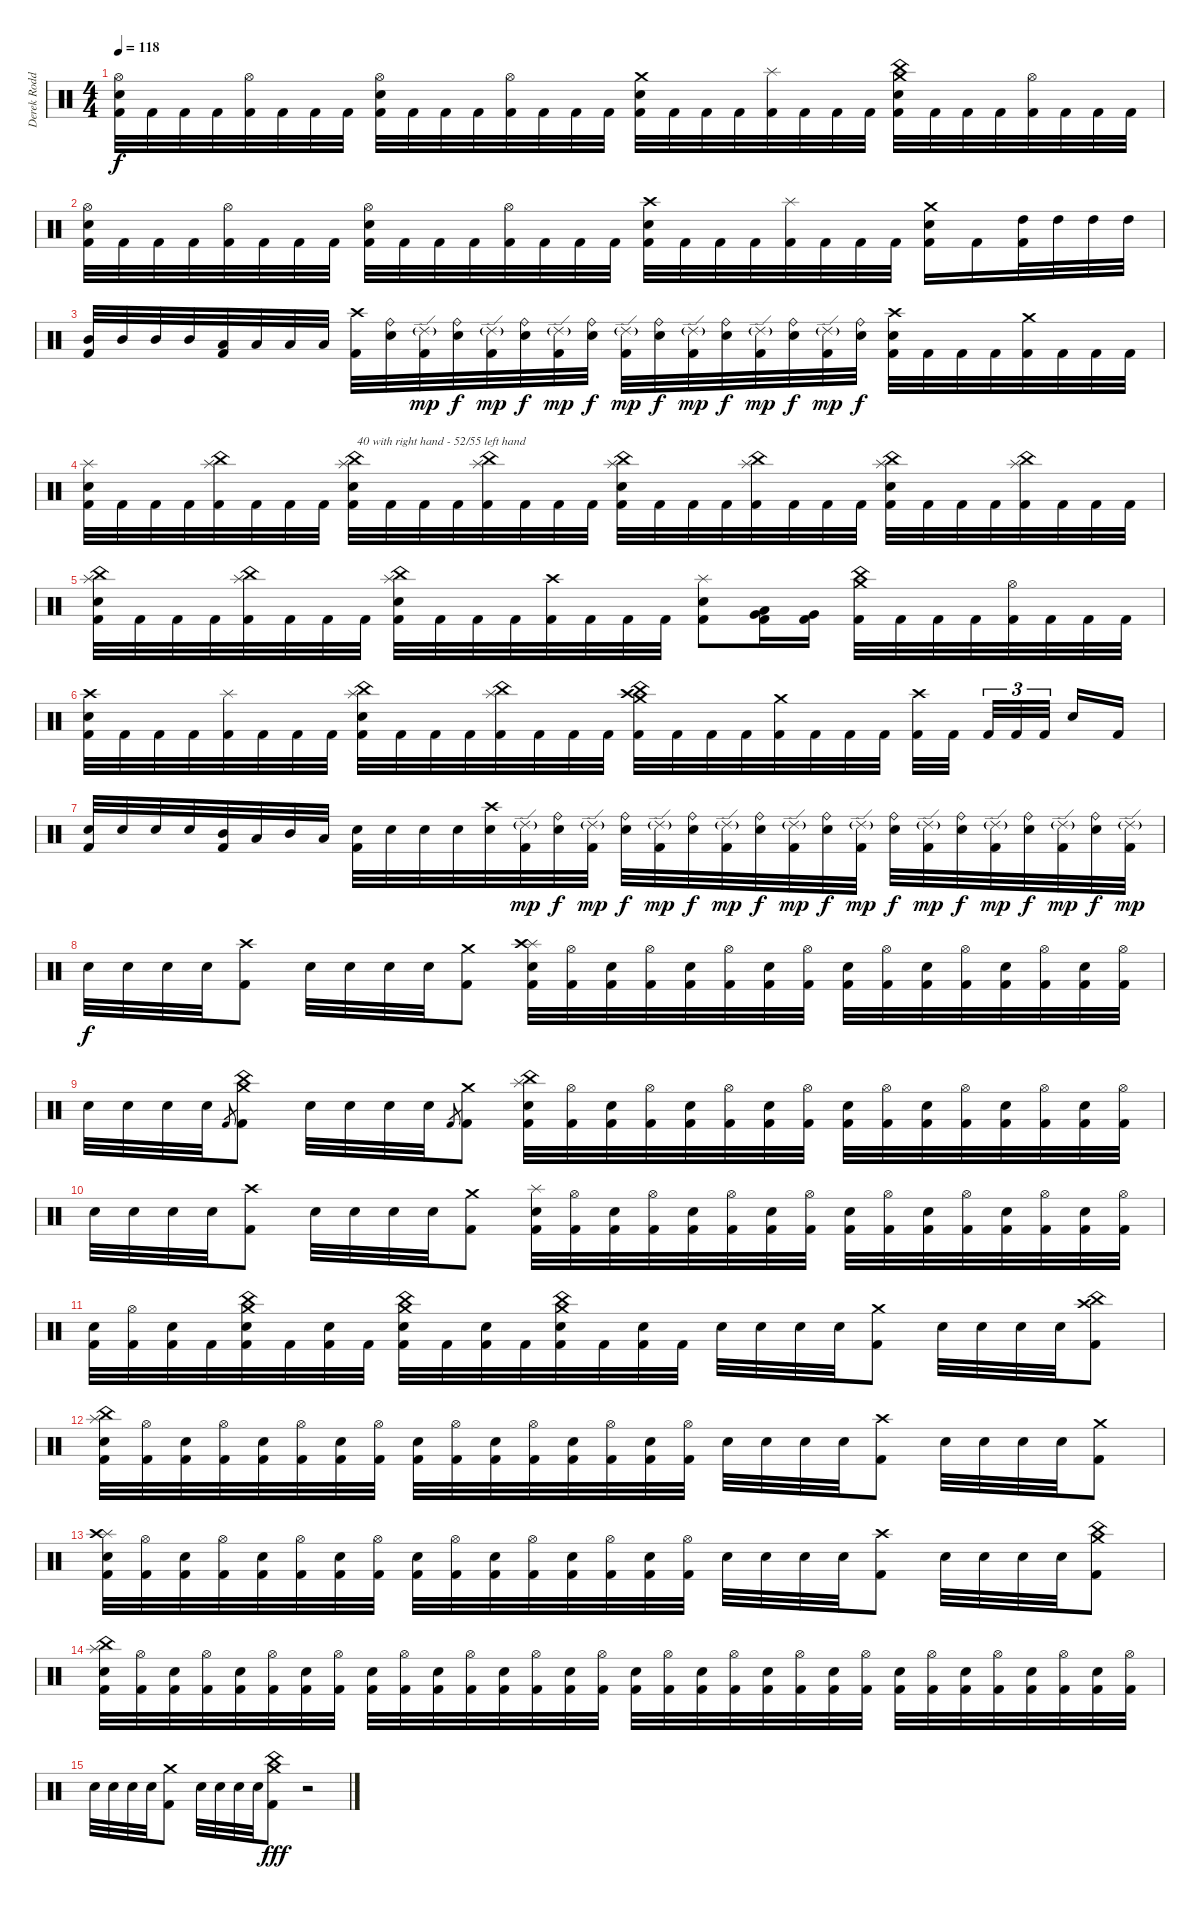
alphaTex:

\track ("Derek Roddy" "Derek Rodd") {instrument percussion}
\staff {score}
\articulation defaults
\ts (4 4)
\tempo 118
\clef neutral
\ks c
("Hi-Hat (open)" "Electric Snare (hit)" "Kick (hit) 2").32{dy f} "Kick (hit) 2".32 "Kick (hit) 2".32 "Kick (hit) 2".32 ("Hi-Hat (open)" "Kick (hit) 2").32 "Kick (hit) 2".32 "Kick (hit) 2".32 "Kick (hit) 2".32 ("Hi-Hat (open)" "Electric Snare (hit)" "Kick (hit) 2").32 "Kick (hit) 2".32 "Kick (hit) 2".32 "Kick (hit) 2".32 ("Hi-Hat (open)" "Kick (hit) 2").32 "Kick (hit) 2".32 "Kick (hit) 2".32 "Kick (hit) 2".32 ("Crash medium (hit)" "Electric Snare (hit)" "Kick (hit) 2").32 "Kick (hit) 2".32 "Kick (hit) 2".32 "Kick (hit) 2".32 ("Splash (hit)" "Kick (hit) 2").32 "Kick (hit) 2".32 "Kick (hit) 2".32 "Kick (hit) 2".32 ("Crash medium (hit)" "China (hit)" "Electric Snare (hit)" "Kick (hit) 2").32 "Kick (hit) 2".32 "Kick (hit) 2".32 "Kick (hit) 2".32 ("Hi-Hat (open)" "Kick (hit) 2").32 "Kick (hit) 2".32 "Kick (hit) 2".32 "Kick (hit) 2".32 |
("Hi-Hat (open)" "Electric Snare (hit)" "Kick (hit) 2").32 "Kick (hit) 2".32 "Kick (hit) 2".32 "Kick (hit) 2".32 ("Hi-Hat (open)" "Kick (hit) 2").32 "Kick (hit) 2".32 "Kick (hit) 2".32 "Kick (hit) 2".32 ("Hi-Hat (open)" "Electric Snare (hit)" "Kick (hit) 2").32 "Kick (hit) 2".32 "Kick (hit) 2".32 "Kick (hit) 2".32 ("Hi-Hat (open)" "Kick (hit) 2").32 "Kick (hit) 2".32 "Kick (hit) 2".32 "Kick (hit) 2".32 ("Crash high (hit)" "Electric Snare (hit)" "Kick (hit) 2").32 "Kick (hit) 2".32 "Kick (hit) 2".32 "Kick (hit) 2".32 ("Splash (hit)" "Kick (hit) 2").32 "Kick (hit) 2".32 "Kick (hit) 2".32 "Kick (hit) 2".32 ("Crash medium (hit)" "Electric Snare (hit)" "Kick (hit) 2").16 "Kick (hit) 2".16 ("High Tom (hit)" "Kick (hit) 2").32 "High Tom (hit)".32 "High Tom (hit)".32 "High Tom (hit)".32 |
("Mid Tom (hit)" "Kick (hit) 2").32 "Mid Tom (hit)".32 "Mid Tom (hit)".32 "Mid Tom (hit)".32 ("Low Tom (hit)" "Kick (hit) 2").32 "Low Tom (hit)".32 "Low Tom (hit)".32 "Low Tom (hit)".32 ("Crash high (hit)" "Kick (hit) 2").32 ("Ride (bell)" "Electric Snare (hit)").32 ("Ride (edge) 2"{g} "Kick (hit) 2").32{dy mp} ("Ride (bell)" "Electric Snare (hit)").32{dy f} ("Ride (edge) 2"{g} "Kick (hit) 2").32{dy mp} ("Ride (bell)" "Electric Snare (hit)").32{dy f} ("Ride (edge) 2"{g} "Kick (hit) 2").32{dy mp} ("Ride (bell)" "Electric Snare (hit)").32{dy f} ("Ride (edge) 2"{g} "Kick (hit) 2").32{dy mp} ("Ride (bell)" "Electric Snare (hit)").32{dy f} ("Ride (edge) 2"{g} "Kick (hit) 2").32{dy mp} ("Ride (bell)" "Electric Snare (hit)").32{dy f} ("Ride (edge) 2"{g} "Kick (hit) 2").32{dy mp} ("Ride (bell)" "Electric Snare (hit)").32{dy f} ("Ride (edge) 2"{g} "Kick (hit) 2").32{dy mp} ("Ride (bell)" "Electric Snare (hit)").32{dy f} ("Crash high (hit)" "Electric Snare (hit)" "Kick (hit) 2").32 "Kick (hit) 2".32 "Kick (hit) 2".32 "Kick (hit) 2".32 ("Crash medium (hit)" "Kick (hit) 2").32 "Kick (hit) 2".32 "Kick (hit) 2".32 "Kick (hit) 2".32 |
("Splash (hit)" "Electric Snare (hit)" "Kick (hit) 2").32 "Kick (hit) 2".32 "Kick (hit) 2".32 "Kick (hit) 2".32 ("Splash (hit)" "China (hit)" "Kick (hit) 2").32 "Kick (hit) 2".32 "Kick (hit) 2".32 "Kick (hit) 2".32 ("Splash (hit)" "China (hit)" "Electric Snare (hit)" "Kick (hit) 2").32{txt "40 with right hand - 52/55 left hand"} "Kick (hit) 2".32 "Kick (hit) 2".32 "Kick (hit) 2".32 ("Splash (hit)" "China (hit)" "Kick (hit) 2").32 "Kick (hit) 2".32 "Kick (hit) 2".32 "Kick (hit) 2".32 ("Splash (hit)" "China (hit)" "Electric Snare (hit)" "Kick (hit) 2").32 "Kick (hit) 2".32 "Kick (hit) 2".32 "Kick (hit) 2".32 ("Splash (hit)" "China (hit)" "Kick (hit) 2").32 "Kick (hit) 2".32 "Kick (hit) 2".32 "Kick (hit) 2".32 ("Splash (hit)" "China (hit)" "Electric Snare (hit)" "Kick (hit) 2").32 "Kick (hit) 2".32 "Kick (hit) 2".32 "Kick (hit) 2".32 ("Splash (hit)" "China (hit)" "Kick (hit) 2").32 "Kick (hit) 2".32 "Kick (hit) 2".32 "Kick (hit) 2".32 |
("Splash (hit)" "China (hit)" "Electric Snare (hit)" "Kick (hit) 2").32 "Kick (hit) 2".32 "Kick (hit) 2".32 "Kick (hit) 2".32 ("Splash (hit)" "China (hit)" "Kick (hit) 2").32 "Kick (hit) 2".32 "Kick (hit) 2".32 "Kick (hit) 2".32 ("Splash (hit)" "China (hit)" "Electric Snare (hit)" "Kick (hit) 2").32 "Kick (hit) 2".32 "Kick (hit) 2".32 "Kick (hit) 2".32 ("Crash high (hit)" "Kick (hit) 2").32 "Kick (hit) 2".32 "Kick (hit) 2".32 "Kick (hit) 2".32 ("Splash (hit)" "Electric Snare (hit)" "Kick (hit) 2").8 ("Low Tom (hit)" "Very Low Tom (hit)" "Kick (hit) 2").16 ("Very Low Tom (hit)" "Kick (hit) 2").16 ("Crash medium (hit)" "China (hit)" "Kick (hit) 2").32 "Kick (hit) 2".32 "Kick (hit) 2".32 "Kick (hit) 2".32 ("Hi-Hat (open)" "Kick (hit) 2").32 "Kick (hit) 2".32 "Kick (hit) 2".32 "Kick (hit) 2".32 |
("Crash high (hit)" "Electric Snare (hit)" "Kick (hit) 2").32 "Kick (hit) 2".32 "Kick (hit) 2".32 "Kick (hit) 2".32 ("Splash (hit)" "Kick (hit) 2").32 "Kick (hit) 2".32 "Kick (hit) 2".32 "Kick (hit) 2".32 ("Splash (hit)" "China (hit)" "Electric Snare (hit)" "Kick (hit) 2").32 "Kick (hit) 2".32 "Kick (hit) 2".32 "Kick (hit) 2".32 ("Splash (hit)" "China (hit)" "Kick (hit) 2").32 "Kick (hit) 2".32 "Kick (hit) 2".32 "Kick (hit) 2".32 ("Crash medium (hit)" "China (hit)" "Crash high (hit)" "Kick (hit) 2").32 "Kick (hit) 2".32 "Kick (hit) 2".32 "Kick (hit) 2".32 ("Crash medium (hit)" "Kick (hit) 2").32 "Kick (hit) 2".32 "Kick (hit) 2".32 "Kick (hit) 2".32 ("Crash high (hit)" "Kick (hit) 2").32 "Kick (hit) 2".32 "Kick (hit) 2".32{tu (3 2)} "Kick (hit) 2".32{tu (3 2)} "Kick (hit) 2".32{tu (3 2)} "Electric Snare (hit)".16 "Kick (hit) 2".16 |
("Electric Snare (hit)" "Kick (hit) 2").32 "Electric Snare (hit)".32 "Electric Snare (hit)".32 "Electric Snare (hit)".32 ("Mid Tom (hit)" "Kick (hit) 2").32 "Low Tom (hit)".32 "Mid Tom (hit)".32 "Low Tom (hit)".32 ("Electric Snare (hit)" "Kick (hit) 2").32 "Electric Snare (hit)".32 "Electric Snare (hit)".32 "Electric Snare (hit)".32 ("Crash high (hit)" "Electric Snare (hit)").32 ("Ride (edge) 2"{g} "Kick (hit) 2").32{dy mp} ("Ride (bell)" "Electric Snare (hit)").32{dy f} ("Ride (edge) 2"{g} "Kick (hit) 2").32{dy mp} ("Ride (bell)" "Electric Snare (hit)").32{dy f} ("Ride (edge) 2"{g} "Kick (hit) 2").32{dy mp} ("Ride (bell)" "Electric Snare (hit)").32{dy f} ("Ride (edge) 2"{g} "Kick (hit) 2").32{dy mp} ("Ride (bell)" "Electric Snare (hit)").32{dy f} ("Ride (edge) 2"{g} "Kick (hit) 2").32{dy mp} ("Ride (bell)" "Electric Snare (hit)").32{dy f} ("Ride (edge) 2"{g} "Kick (hit) 2").32{dy mp} ("Ride (bell)" "Electric Snare (hit)").32{dy f} ("Ride (edge) 2"{g} "Kick (hit) 2").32{dy mp} ("Ride (bell)" "Electric Snare (hit)").32{dy f} ("Ride (edge) 2"{g} "Kick (hit) 2").32{dy mp} ("Ride (bell)" "Electric Snare (hit)").32{dy f} ("Ride (edge) 2"{g} "Kick (hit) 2").32{dy mp} ("Ride (bell)" "Electric Snare (hit)").32{dy f} ("Ride (edge) 2"{g} "Kick (hit) 2").32{dy mp} |
"Electric Snare (hit)".32{dy f} "Electric Snare (hit)".32 "Electric Snare (hit)".32 "Electric Snare (hit)".32 ("Crash high (hit)" "Kick (hit) 2").8 "Electric Snare (hit)".32 "Electric Snare (hit)".32 "Electric Snare (hit)".32 "Electric Snare (hit)".32 ("Crash medium (hit)" "Kick (hit) 2").8 ("Splash (hit)" "Crash high (hit)" "Electric Snare (hit)" "Kick (hit) 2").32 ("Hi-Hat (open)" "Kick (hit) 2").32 ("Electric Snare (hit)" "Kick (hit) 2").32 ("Hi-Hat (open)" "Kick (hit) 2").32 ("Electric Snare (hit)" "Kick (hit) 2").32 ("Hi-Hat (open)" "Kick (hit) 2").32 ("Electric Snare (hit)" "Kick (hit) 2").32 ("Hi-Hat (open)" "Kick (hit) 2").32 ("Electric Snare (hit)" "Kick (hit) 2").32 ("Hi-Hat (open)" "Kick (hit) 2").32 ("Electric Snare (hit)" "Kick (hit) 2").32 ("Hi-Hat (open)" "Kick (hit) 2").32 ("Electric Snare (hit)" "Kick (hit) 2").32 ("Hi-Hat (open)" "Kick (hit) 2").32 ("Electric Snare (hit)" "Kick (hit) 2").32 ("Hi-Hat (open)" "Kick (hit) 2").32 |
"Electric Snare (hit)".32 "Electric Snare (hit)".32 "Electric Snare (hit)".32 "Electric Snare (hit)".32 "Kick (hit) 2".8{gr} ("Crash medium (hit)" "China (hit)" "Kick (hit) 2").8 "Electric Snare (hit)".32 "Electric Snare (hit)".32 "Electric Snare (hit)".32 "Electric Snare (hit)".32 "Kick (hit) 2".8{gr} ("Crash medium (hit)" "Kick (hit) 2").8 ("Splash (hit)" "China (hit)" "Electric Snare (hit)" "Kick (hit) 2").32 ("Hi-Hat (open)" "Kick (hit) 2").32 ("Electric Snare (hit)" "Kick (hit) 2").32 ("Hi-Hat (open)" "Kick (hit) 2").32 ("Electric Snare (hit)" "Kick (hit) 2").32 ("Hi-Hat (open)" "Kick (hit) 2").32 ("Electric Snare (hit)" "Kick (hit) 2").32 ("Hi-Hat (open)" "Kick (hit) 2").32 ("Electric Snare (hit)" "Kick (hit) 2").32 ("Hi-Hat (open)" "Kick (hit) 2").32 ("Electric Snare (hit)" "Kick (hit) 2").32 ("Hi-Hat (open)" "Kick (hit) 2").32 ("Electric Snare (hit)" "Kick (hit) 2").32 ("Hi-Hat (open)" "Kick (hit) 2").32 ("Electric Snare (hit)" "Kick (hit) 2").32 ("Hi-Hat (open)" "Kick (hit) 2").32 |
"Electric Snare (hit)".32 "Electric Snare (hit)".32 "Electric Snare (hit)".32 "Electric Snare (hit)".32 ("Crash high (hit)" "Kick (hit) 2").8 "Electric Snare (hit)".32 "Electric Snare (hit)".32 "Electric Snare (hit)".32 "Electric Snare (hit)".32 ("Crash medium (hit)" "Kick (hit) 2").8 ("Splash (hit)" "Electric Snare (hit)" "Kick (hit) 2").32 ("Hi-Hat (open)" "Kick (hit) 2").32 ("Electric Snare (hit)" "Kick (hit) 2").32 ("Hi-Hat (open)" "Kick (hit) 2").32 ("Electric Snare (hit)" "Kick (hit) 2").32 ("Hi-Hat (open)" "Kick (hit) 2").32 ("Electric Snare (hit)" "Kick (hit) 2").32 ("Hi-Hat (open)" "Kick (hit) 2").32 ("Electric Snare (hit)" "Kick (hit) 2").32 ("Hi-Hat (open)" "Kick (hit) 2").32 ("Electric Snare (hit)" "Kick (hit) 2").32 ("Hi-Hat (open)" "Kick (hit) 2").32 ("Electric Snare (hit)" "Kick (hit) 2").32 ("Hi-Hat (open)" "Kick (hit) 2").32 ("Electric Snare (hit)" "Kick (hit) 2").32 ("Hi-Hat (open)" "Kick (hit) 2").32 |
("Electric Snare (hit)" "Kick (hit) 2").32 ("Hi-Hat (open)" "Kick (hit) 2").32 ("Electric Snare (hit)" "Kick (hit) 2").32 "Kick (hit) 2".32 ("Crash medium (hit)" "China (hit)" "Electric Snare (hit)" "Kick (hit) 2").32 "Kick (hit) 2".32 ("Electric Snare (hit)" "Kick (hit) 2").32 "Kick (hit) 2".32 ("Crash medium (hit)" "China (hit)" "Electric Snare (hit)" "Kick (hit) 2").32 "Kick (hit) 2".32 ("Electric Snare (hit)" "Kick (hit) 2").32 "Kick (hit) 2".32 ("Crash medium (hit)" "China (hit)" "Electric Snare (hit)" "Kick (hit) 2").32 "Kick (hit) 2".32 ("Electric Snare (hit)" "Kick (hit) 2").32 "Kick (hit) 2".32 "Electric Snare (hit)".32 "Electric Snare (hit)".32 "Electric Snare (hit)".32 "Electric Snare (hit)".32 ("Crash medium (hit)" "Kick (hit) 2").8 "Electric Snare (hit)".32 "Electric Snare (hit)".32 "Electric Snare (hit)".32 "Electric Snare (hit)".32 ("Crash high (hit)" "China (hit)" "Kick (hit) 2").8 |
("Splash (hit)" "China (hit)" "Electric Snare (hit)" "Kick (hit) 2").32 ("Hi-Hat (open)" "Kick (hit) 2").32 ("Electric Snare (hit)" "Kick (hit) 2").32 ("Hi-Hat (open)" "Kick (hit) 2").32 ("Electric Snare (hit)" "Kick (hit) 2").32 ("Hi-Hat (open)" "Kick (hit) 2").32 ("Electric Snare (hit)" "Kick (hit) 2").32 ("Hi-Hat (open)" "Kick (hit) 2").32 ("Electric Snare (hit)" "Kick (hit) 2").32 ("Hi-Hat (open)" "Kick (hit) 2").32 ("Electric Snare (hit)" "Kick (hit) 2").32 ("Hi-Hat (open)" "Kick (hit) 2").32 ("Electric Snare (hit)" "Kick (hit) 2").32 ("Hi-Hat (open)" "Kick (hit) 2").32 ("Electric Snare (hit)" "Kick (hit) 2").32 ("Hi-Hat (open)" "Kick (hit) 2").32 "Electric Snare (hit)".32 "Electric Snare (hit)".32 "Electric Snare (hit)".32 "Electric Snare (hit)".32 ("Crash high (hit)" "Kick (hit) 2").8 "Electric Snare (hit)".32 "Electric Snare (hit)".32 "Electric Snare (hit)".32 "Electric Snare (hit)".32 ("Crash medium (hit)" "Kick (hit) 2").8 |
("Splash (hit)" "Crash high (hit)" "Electric Snare (hit)" "Kick (hit) 2").32 ("Hi-Hat (open)" "Kick (hit) 2").32 ("Electric Snare (hit)" "Kick (hit) 2").32 ("Hi-Hat (open)" "Kick (hit) 2").32 ("Electric Snare (hit)" "Kick (hit) 2").32 ("Hi-Hat (open)" "Kick (hit) 2").32 ("Electric Snare (hit)" "Kick (hit) 2").32 ("Hi-Hat (open)" "Kick (hit) 2").32 ("Electric Snare (hit)" "Kick (hit) 2").32 ("Hi-Hat (open)" "Kick (hit) 2").32 ("Electric Snare (hit)" "Kick (hit) 2").32 ("Hi-Hat (open)" "Kick (hit) 2").32 ("Electric Snare (hit)" "Kick (hit) 2").32 ("Hi-Hat (open)" "Kick (hit) 2").32 ("Electric Snare (hit)" "Kick (hit) 2").32 ("Hi-Hat (open)" "Kick (hit) 2").32 "Electric Snare (hit)".32 "Electric Snare (hit)".32 "Electric Snare (hit)".32 "Electric Snare (hit)".32 ("Crash high (hit)" "Kick (hit) 2").8 "Electric Snare (hit)".32 "Electric Snare (hit)".32 "Electric Snare (hit)".32 "Electric Snare (hit)".32 ("Crash medium (hit)" "China (hit)" "Kick (hit) 2").8 |
("Splash (hit)" "China (hit)" "Electric Snare (hit)" "Kick (hit) 2").32 ("Hi-Hat (open)" "Kick (hit) 2").32 ("Electric Snare (hit)" "Kick (hit) 2").32 ("Hi-Hat (open)" "Kick (hit) 2").32 ("Electric Snare (hit)" "Kick (hit) 2").32 ("Hi-Hat (open)" "Kick (hit) 2").32 ("Electric Snare (hit)" "Kick (hit) 2").32 ("Hi-Hat (open)" "Kick (hit) 2").32 ("Electric Snare (hit)" "Kick (hit) 2").32 ("Hi-Hat (open)" "Kick (hit) 2").32 ("Electric Snare (hit)" "Kick (hit) 2").32 ("Hi-Hat (open)" "Kick (hit) 2").32 ("Electric Snare (hit)" "Kick (hit) 2").32 ("Hi-Hat (open)" "Kick (hit) 2").32 ("Electric Snare (hit)" "Kick (hit) 2").32 ("Hi-Hat (open)" "Kick (hit) 2").32 ("Electric Snare (hit)" "Kick (hit) 2").32 ("Hi-Hat (open)" "Kick (hit) 2").32 ("Electric Snare (hit)" "Kick (hit) 2").32 ("Hi-Hat (open)" "Kick (hit) 2").32 ("Electric Snare (hit)" "Kick (hit) 2").32 ("Hi-Hat (open)" "Kick (hit) 2").32 ("Electric Snare (hit)" "Kick (hit) 2").32 ("Hi-Hat (open)" "Kick (hit) 2").32 ("Electric Snare (hit)" "Kick (hit) 2").32 ("Hi-Hat (open)" "Kick (hit) 2").32 ("Electric Snare (hit)" "Kick (hit) 2").32 ("Hi-Hat (open)" "Kick (hit) 2").32 ("Electric Snare (hit)" "Kick (hit) 2").32 ("Hi-Hat (open)" "Kick (hit) 2").32 ("Electric Snare (hit)" "Kick (hit) 2").32 ("Hi-Hat (open)" "Kick (hit) 2").32 |
"Electric Snare (hit)".32 "Electric Snare (hit)".32 "Electric Snare (hit)".32 "Electric Snare (hit)".32 ("Crash medium (hit)" "Kick (hit) 2").8 "Electric Snare (hit)".32 "Electric Snare (hit)".32 "Electric Snare (hit)".32 "Electric Snare (hit)".32 ("Crash medium (hit)" "China (hit)" "Kick (hit) 2").8{dy fff} r.2
